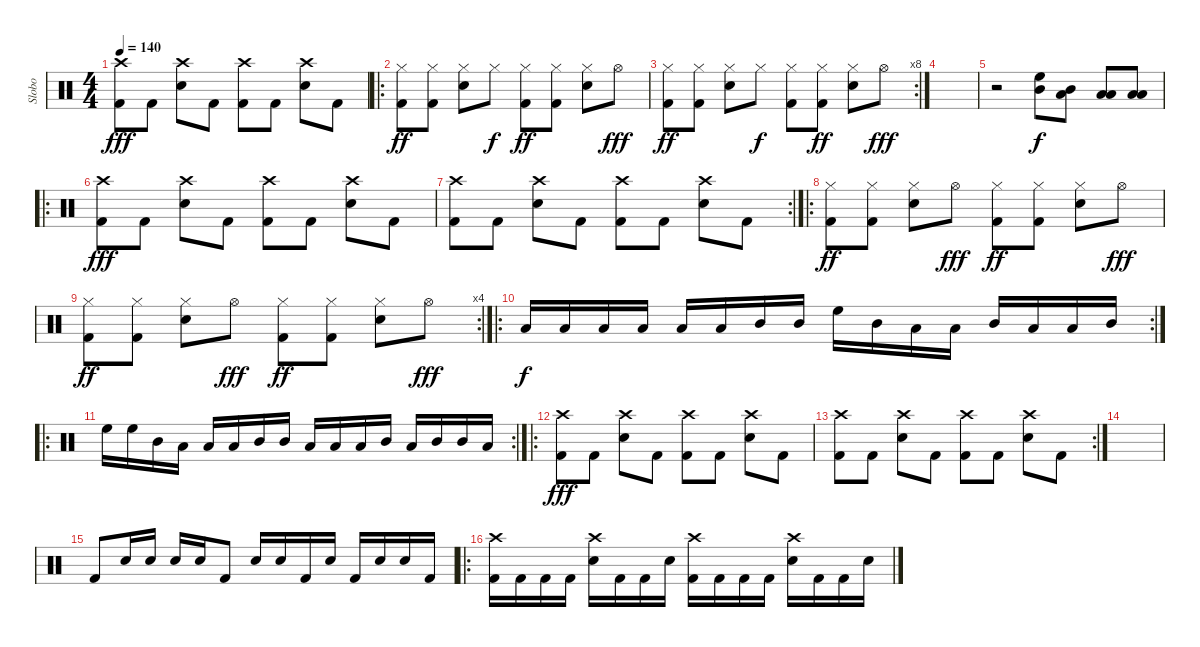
\track ("Slobo" "Slobo") {instrument percussion}
\staff {score}
\articulation defaults
\ts (4 4)
\tempo 140
\clef neutral
\ks c
("Crash high (hit)" "Kick (hit) 2").8{dy fff} "Kick (hit) 2".8 ("Crash high (hit)" "Snare (hit) 2").8 "Kick (hit) 2".8 ("Crash high (hit)" "Kick (hit) 2").8 "Kick (hit) 2".8 ("Crash high (hit)" "Snare (hit) 2").8 "Kick (hit) 2".8 |
\ro
("Hi-Hat (closed)" "Kick (hit) 2").8{dy ff} ("Hi-Hat (closed)" "Kick (hit) 2").8 ("Hi-Hat (closed)" "Snare (hit) 2").8 "Hi-Hat (closed)".8{dy f} ("Hi-Hat (closed)" "Kick (hit) 2").8{dy ff} ("Hi-Hat (closed)" "Kick (hit) 2").8 ("Hi-Hat (closed)" "Snare (hit) 2").8 "Hi-Hat (open)".8{dy fff} |
\rc 8
("Hi-Hat (closed)" "Kick (hit) 2").8{dy ff} ("Hi-Hat (closed)" "Kick (hit) 2").8 ("Hi-Hat (closed)" "Snare (hit) 2").8 "Hi-Hat (closed)".8{dy f} ("Hi-Hat (closed)" "Kick (hit) 2").8 ("Hi-Hat (closed)" "Kick (hit) 2").8{dy ff} ("Hi-Hat (closed)" "Snare (hit) 2").8 "Hi-Hat (open)".8{dy fff} |
|
r.2 ("Mid Tom (hit)" "High Floor Tom (hit)").8{bd 480 dy f} ("Low Tom (hit)" "Mid Tom (hit)").8{bd 480} ("Low Floor Tom (hit)" "Low Tom (hit)").8{bd 480} ("Low Floor Tom (hit)" "Low Floor Tom (hit)").8{bd 480} |
\ro
("Crash high (hit)" "Kick (hit) 2").8{dy fff} "Kick (hit) 2".8 ("Crash high (hit)" "Snare (hit) 2").8 "Kick (hit) 2".8 ("Crash high (hit)" "Kick (hit) 2").8 "Kick (hit) 2".8 ("Crash high (hit)" "Snare (hit) 2").8 "Kick (hit) 2".8 |
\rc 2
("Crash high (hit)" "Kick (hit) 2").8 "Kick (hit) 2".8 ("Crash high (hit)" "Snare (hit) 2").8 "Kick (hit) 2".8 ("Crash high (hit)" "Kick (hit) 2").8 "Kick (hit) 2".8 ("Crash high (hit)" "Snare (hit) 2").8 "Kick (hit) 2".8 |
\ro
("Hi-Hat (closed)" "Kick (hit) 2").8{dy ff} ("Hi-Hat (closed)" "Kick (hit) 2").8 ("Hi-Hat (closed)" "Snare (hit) 2").8 "Hi-Hat (open)".8{dy fff} ("Hi-Hat (closed)" "Kick (hit) 2").8{dy ff} ("Hi-Hat (closed)" "Kick (hit) 2").8 ("Hi-Hat (closed)" "Snare (hit) 2").8 "Hi-Hat (open)".8{dy fff} |
\rc 4
("Hi-Hat (closed)" "Kick (hit) 2").8{dy ff} ("Hi-Hat (closed)" "Kick (hit) 2").8 ("Hi-Hat (closed)" "Snare (hit) 2").8 "Hi-Hat (open)".8{dy fff} ("Hi-Hat (closed)" "Kick (hit) 2").8{dy ff} ("Hi-Hat (closed)" "Kick (hit) 2").8 ("Hi-Hat (closed)" "Snare (hit) 2").8 "Hi-Hat (open)".8{dy fff} |
\ro
\rc 2 "Low Floor Tom (hit)".16{dy f} "Low Floor Tom (hit)".16 "Low Floor Tom (hit)".16 "Low Floor Tom (hit)".16 "Low Floor Tom (hit)".16 "Low Floor Tom (hit)".16 "Mid Tom (hit)".16 "Mid Tom (hit)".16 "High Floor Tom (hit)".16 "Mid Tom (hit)".16 "Low Tom (hit)".16 "Low Floor Tom (hit)".16 "Mid Tom (hit)".16 "Low Tom (hit)".16 "Low Floor Tom (hit)".16 "Mid Tom (hit)".16
|
\ro
\rc 2 "High Floor Tom (hit)".16 "High Floor Tom (hit)".16 "Mid Tom (hit)".16 "Low Tom (hit)".16 "Low Floor Tom (hit)".16 "Low Tom (hit)".16 "Mid Tom (hit)".16 "Mid Tom (hit)".16 "Low Floor Tom (hit)".16 "Low Tom (hit)".16 "Low Tom (hit)".16 "Mid Tom (hit)".16 "Low Tom (hit)".16 "Mid Tom (hit)".16 "Mid Tom (hit)".16 "Low Tom (hit)".16
|
\ro
("Crash high (hit)" "Kick (hit) 2").8{dy fff} "Kick (hit) 2".8 ("Crash high (hit)" "Snare (hit) 2").8 "Kick (hit) 2".8 ("Crash high (hit)" "Kick (hit) 2").8 "Kick (hit) 2".8 ("Crash high (hit)" "Snare (hit) 2").8 "Kick (hit) 2".8 |
\rc 2
("Crash high (hit)" "Kick (hit) 2").8 "Kick (hit) 2".8 ("Crash high (hit)" "Snare (hit) 2").8 "Kick (hit) 2".8 ("Crash high (hit)" "Kick (hit) 2").8 "Kick (hit) 2".8 ("Crash high (hit)" "Snare (hit) 2").8 "Kick (hit) 2".8 |
|
"Kick (hit) 2".8 "Snare (hit) 2".16 "Snare (hit) 2".16 "Snare (hit) 2".16 "Snare (hit) 2".16 "Kick (hit) 2".8 "Snare (hit) 2".16 "Snare (hit) 2".16 "Kick (hit) 2".16 "Snare (hit) 2".16 "Kick (hit) 2".16 "Snare (hit) 2".16 "Snare (hit) 2".16 "Kick (hit) 2".16 |
\ro
("Crash high (hit)" "Kick (hit) 2").16 "Kick (hit) 2".16 "Kick (hit) 2".16 "Kick (hit) 2".16 ("Crash high (hit)" "Snare (hit) 2").16 "Kick (hit) 2".16 "Kick (hit) 2".16 "Snare (hit) 2".16 ("Crash high (hit)" "Kick (hit) 2").16 "Kick (hit) 2".16 "Kick (hit) 2".16 "Kick (hit) 2".16 ("Crash high (hit)" "Snare (hit) 2").16 "Kick (hit) 2".16 "Kick (hit) 2".16 "Snare (hit) 2".16
